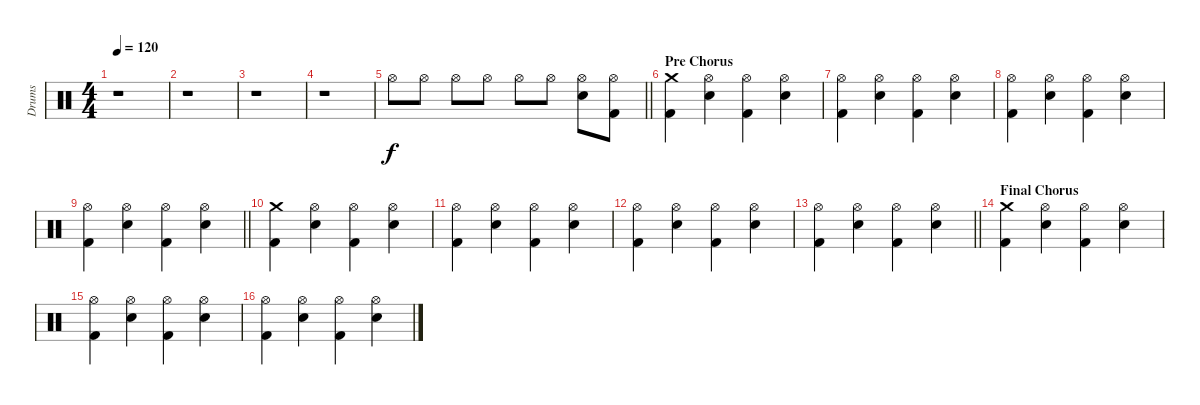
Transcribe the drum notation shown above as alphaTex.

\track ("Drums" "Drums") {instrument percussion}
\staff {score}
\articulation defaults
\ts (4 4)
\tempo 120
\clef neutral
\ks c
r.1{dy f} |
r.1 |
r.1 |
r.1 |
\barLineRight lightlight "Hi-Hat (open)".8 "Hi-Hat (open)".8 "Hi-Hat (open)".8 "Hi-Hat (open)".8 "Hi-Hat (open)".8 "Hi-Hat (open)".8
("Hi-Hat (open)" "Electric Snare (hit)").8 ("Hi-Hat (open)" "Kick (hit) 2").8 |
\section ("" "Pre Chorus")
("Crash medium (hit)" "Kick (hit) 2").4 ("Hi-Hat (open)" "Electric Snare (hit)").4 ("Hi-Hat (open)" "Kick (hit) 2").4 ("Hi-Hat (open)" "Electric Snare (hit)").4 |
("Hi-Hat (open)" "Kick (hit) 2").4 ("Hi-Hat (open)" "Electric Snare (hit)").4 ("Hi-Hat (open)" "Kick (hit) 2").4 ("Hi-Hat (open)" "Electric Snare (hit)").4 |
("Hi-Hat (open)" "Kick (hit) 2").4 ("Hi-Hat (open)" "Electric Snare (hit)").4 ("Hi-Hat (open)" "Kick (hit) 2").4 ("Hi-Hat (open)" "Electric Snare (hit)").4 |
\barLineRight lightlight
("Hi-Hat (open)" "Kick (hit) 2").4 ("Hi-Hat (open)" "Electric Snare (hit)").4 ("Hi-Hat (open)" "Kick (hit) 2").4 ("Hi-Hat (open)" "Electric Snare (hit)").4 |
("Crash medium (hit)" "Kick (hit) 2").4 ("Hi-Hat (open)" "Electric Snare (hit)").4 ("Hi-Hat (open)" "Kick (hit) 2").4 ("Hi-Hat (open)" "Electric Snare (hit)").4 |
("Hi-Hat (open)" "Kick (hit) 2").4 ("Hi-Hat (open)" "Electric Snare (hit)").4 ("Hi-Hat (open)" "Kick (hit) 2").4 ("Hi-Hat (open)" "Electric Snare (hit)").4 |
("Hi-Hat (open)" "Kick (hit) 2").4 ("Hi-Hat (open)" "Electric Snare (hit)").4 ("Hi-Hat (open)" "Kick (hit) 2").4 ("Hi-Hat (open)" "Electric Snare (hit)").4 |
\barLineRight lightlight
("Hi-Hat (open)" "Kick (hit) 2").4 ("Hi-Hat (open)" "Electric Snare (hit)").4 ("Hi-Hat (open)" "Kick (hit) 2").4 ("Hi-Hat (open)" "Electric Snare (hit)").4 |
\section ("" "Final Chorus")
("Crash medium (hit)" "Kick (hit) 2").4 ("Hi-Hat (open)" "Electric Snare (hit)").4 ("Hi-Hat (open)" "Kick (hit) 2").4 ("Hi-Hat (open)" "Electric Snare (hit)").4 |
("Hi-Hat (open)" "Kick (hit) 2").4 ("Hi-Hat (open)" "Electric Snare (hit)").4 ("Hi-Hat (open)" "Kick (hit) 2").4 ("Hi-Hat (open)" "Electric Snare (hit)").4 |
("Hi-Hat (open)" "Kick (hit) 2").4 ("Hi-Hat (open)" "Electric Snare (hit)").4 ("Hi-Hat (open)" "Kick (hit) 2").4 ("Hi-Hat (open)" "Electric Snare (hit)").4
